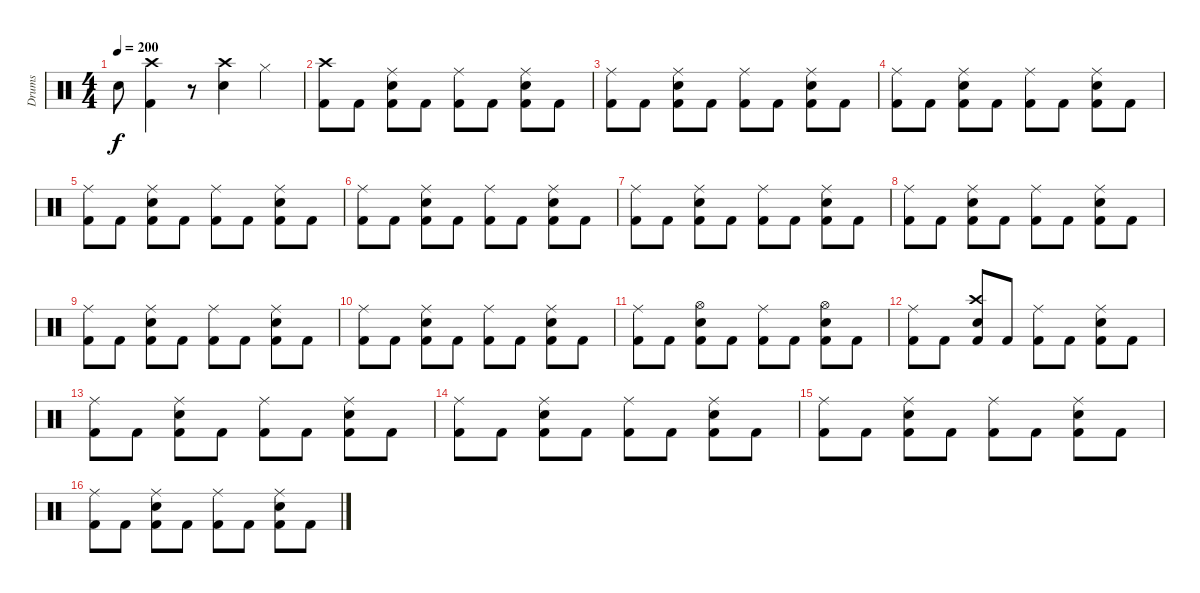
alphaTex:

\track ("Drums" "Drums") {instrument percussion}
\staff {score}
\articulation defaults
\ts (4 4)
\tempo 200
\clef neutral
\ks c "Snare (hit) 2".8{dy f}
("Crash high (hit)" "Kick (hit) 2").4 r.8 ("Crash high (hit)" "Snare (hit) 2").4 "Hi-Hat (closed)".4 |
("Crash high (hit)" "Kick (hit) 2").8 "Kick (hit) 2".8 ("Ride (middle)" "Snare (hit) 2" "Kick (hit) 2").8 "Kick (hit) 2".8 ("Ride (middle)" "Kick (hit) 2").8 "Kick (hit) 2".8 ("Ride (middle)" "Snare (hit) 2" "Kick (hit) 2").8 "Kick (hit) 2".8 |
("Ride (middle)" "Kick (hit) 2").8 "Kick (hit) 2".8 ("Ride (middle)" "Snare (hit) 2" "Kick (hit) 2").8 "Kick (hit) 2".8 ("Ride (middle)" "Kick (hit) 2").8 "Kick (hit) 2".8 ("Ride (middle)" "Snare (hit) 2" "Kick (hit) 2").8 "Kick (hit) 2".8 |
("Ride (middle)" "Kick (hit) 2").8 "Kick (hit) 2".8 ("Ride (middle)" "Snare (hit) 2" "Kick (hit) 2").8 "Kick (hit) 2".8 ("Ride (middle)" "Kick (hit) 2").8 "Kick (hit) 2".8 ("Ride (middle)" "Snare (hit) 2" "Kick (hit) 2").8 "Kick (hit) 2".8 |
("Ride (middle)" "Kick (hit) 2").8 "Kick (hit) 2".8 ("Ride (middle)" "Snare (hit) 2" "Kick (hit) 2").8 "Kick (hit) 2".8 ("Ride (middle)" "Kick (hit) 2").8 "Kick (hit) 2".8 ("Ride (middle)" "Snare (hit) 2" "Kick (hit) 2").8 "Kick (hit) 2".8 |
("Ride (middle)" "Kick (hit) 2").8 "Kick (hit) 2".8 ("Ride (middle)" "Snare (hit) 2" "Kick (hit) 2").8 "Kick (hit) 2".8 ("Ride (middle)" "Kick (hit) 2").8 "Kick (hit) 2".8 ("Ride (middle)" "Snare (hit) 2" "Kick (hit) 2").8 "Kick (hit) 2".8 |
("Ride (middle)" "Kick (hit) 2").8 "Kick (hit) 2".8 ("Ride (middle)" "Snare (hit) 2" "Kick (hit) 2").8 "Kick (hit) 2".8 ("Ride (middle)" "Kick (hit) 2").8 "Kick (hit) 2".8 ("Ride (middle)" "Snare (hit) 2" "Kick (hit) 2").8 "Kick (hit) 2".8 |
("Ride (middle)" "Kick (hit) 2").8 "Kick (hit) 2".8 ("Ride (middle)" "Snare (hit) 2" "Kick (hit) 2").8 "Kick (hit) 2".8 ("Ride (middle)" "Kick (hit) 2").8 "Kick (hit) 2".8 ("Ride (middle)" "Snare (hit) 2" "Kick (hit) 2").8 "Kick (hit) 2".8 |
("Ride (middle)" "Kick (hit) 2").8 "Kick (hit) 2".8 ("Ride (middle)" "Snare (hit) 2" "Kick (hit) 2").8 "Kick (hit) 2".8 ("Ride (middle)" "Kick (hit) 2").8 "Kick (hit) 2".8 ("Ride (middle)" "Snare (hit) 2" "Kick (hit) 2").8 "Kick (hit) 2".8 |
("Ride (middle)" "Kick (hit) 2").8 "Kick (hit) 2".8 ("Ride (middle)" "Snare (hit) 2" "Kick (hit) 2").8 "Kick (hit) 2".8 ("Ride (middle)" "Kick (hit) 2").8 "Kick (hit) 2".8 ("Ride (middle)" "Snare (hit) 2" "Kick (hit) 2").8 "Kick (hit) 2".8 |
("Ride (middle)" "Kick (hit) 2").8 "Kick (hit) 2".8 ("Hi-Hat (open)" "Snare (hit) 2" "Kick (hit) 2").8 "Kick (hit) 2".8 ("Ride (middle)" "Kick (hit) 2").8 "Kick (hit) 2".8 ("Hi-Hat (open)" "Snare (hit) 2" "Kick (hit) 2").8 "Kick (hit) 2".8 |
("Ride (middle)" "Kick (hit) 2").8 "Kick (hit) 2".8 ("Crash high (hit)" "Snare (hit) 2" "Kick (hit) 2").8 "Kick (hit) 2".8 ("Ride (middle)" "Kick (hit) 2").8 "Kick (hit) 2".8 ("Ride (middle)" "Snare (hit) 2" "Kick (hit) 2").8 "Kick (hit) 2".8 |
("Ride (middle)" "Kick (hit) 2").8 "Kick (hit) 2".8 ("Ride (middle)" "Snare (hit) 2" "Kick (hit) 2").8 "Kick (hit) 2".8 ("Ride (middle)" "Kick (hit) 2").8 "Kick (hit) 2".8 ("Ride (middle)" "Snare (hit) 2" "Kick (hit) 2").8 "Kick (hit) 2".8 |
("Ride (middle)" "Kick (hit) 2").8 "Kick (hit) 2".8 ("Ride (middle)" "Snare (hit) 2" "Kick (hit) 2").8 "Kick (hit) 2".8 ("Ride (middle)" "Kick (hit) 2").8 "Kick (hit) 2".8 ("Ride (middle)" "Snare (hit) 2" "Kick (hit) 2").8 "Kick (hit) 2".8 |
("Ride (middle)" "Kick (hit) 2").8 "Kick (hit) 2".8 ("Ride (middle)" "Snare (hit) 2" "Kick (hit) 2").8 "Kick (hit) 2".8 ("Ride (middle)" "Kick (hit) 2").8 "Kick (hit) 2".8 ("Ride (middle)" "Snare (hit) 2" "Kick (hit) 2").8 "Kick (hit) 2".8 |
("Ride (middle)" "Kick (hit) 2").8 "Kick (hit) 2".8 ("Ride (middle)" "Snare (hit) 2" "Kick (hit) 2").8 "Kick (hit) 2".8 ("Ride (middle)" "Kick (hit) 2").8 "Kick (hit) 2".8 ("Ride (middle)" "Snare (hit) 2" "Kick (hit) 2").8 "Kick (hit) 2".8
